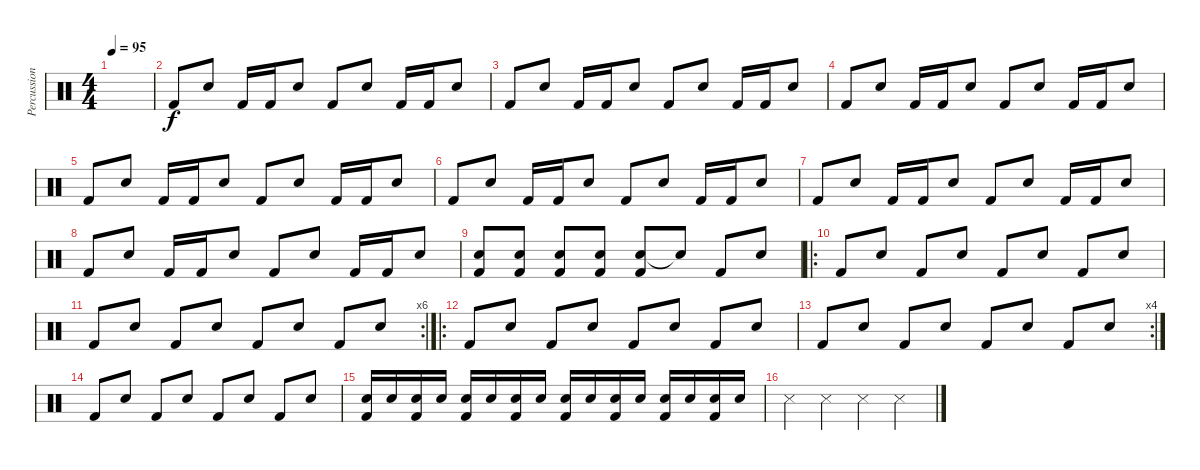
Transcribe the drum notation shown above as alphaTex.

\track ("Percussion" "Percussion") {instrument percussion}
\staff {score}
\articulation defaults
\ts (4 4)
\tempo 95
\clef neutral
\ks c
|
"Kick (hit) 2".8 "Snare (hit) 2".8 "Kick (hit) 2".16 "Kick (hit) 2".16 "Snare (hit) 2".8 "Kick (hit) 2".8 "Snare (hit) 2".8 "Kick (hit) 2".16 "Kick (hit) 2".16 "Snare (hit) 2".8 |
"Kick (hit) 2".8 "Snare (hit) 2".8 "Kick (hit) 2".16 "Kick (hit) 2".16 "Snare (hit) 2".8 "Kick (hit) 2".8 "Snare (hit) 2".8 "Kick (hit) 2".16 "Kick (hit) 2".16 "Snare (hit) 2".8 |
"Kick (hit) 2".8 "Snare (hit) 2".8 "Kick (hit) 2".16 "Kick (hit) 2".16 "Snare (hit) 2".8 "Kick (hit) 2".8 "Snare (hit) 2".8 "Kick (hit) 2".16 "Kick (hit) 2".16 "Snare (hit) 2".8 |
"Kick (hit) 2".8 "Snare (hit) 2".8 "Kick (hit) 2".16 "Kick (hit) 2".16 "Snare (hit) 2".8 "Kick (hit) 2".8 "Snare (hit) 2".8 "Kick (hit) 2".16 "Kick (hit) 2".16 "Snare (hit) 2".8 |
"Kick (hit) 2".8 "Snare (hit) 2".8 "Kick (hit) 2".16 "Kick (hit) 2".16 "Snare (hit) 2".8 "Kick (hit) 2".8 "Snare (hit) 2".8 "Kick (hit) 2".16 "Kick (hit) 2".16 "Snare (hit) 2".8 |
"Kick (hit) 2".8 "Snare (hit) 2".8 "Kick (hit) 2".16 "Kick (hit) 2".16 "Snare (hit) 2".8 "Kick (hit) 2".8 "Snare (hit) 2".8 "Kick (hit) 2".16 "Kick (hit) 2".16 "Snare (hit) 2".8 |
"Kick (hit) 2".8 "Snare (hit) 2".8 "Kick (hit) 2".16 "Kick (hit) 2".16 "Snare (hit) 2".8 "Kick (hit) 2".8 "Snare (hit) 2".8 "Kick (hit) 2".16 "Kick (hit) 2".16 "Snare (hit) 2".8 |
("Snare (hit) 2" "Kick (hit) 2").8 ("Snare (hit) 2" "Kick (hit) 2").8 ("Snare (hit) 2" "Kick (hit) 2").8 ("Snare (hit) 2" "Kick (hit) 2").8 ("Snare (hit) 2" "Kick (hit) 2").8 "Snare (hit)"{t}.8 "Kick (hit) 2".8 "Snare (hit) 2".8 |
\ro "Kick (hit) 2".8 "Snare (hit) 2".8 "Kick (hit) 2".8 "Snare (hit) 2".8 "Kick (hit) 2".8 "Snare (hit) 2".8 "Kick (hit) 2".8 "Snare (hit) 2".8
|
\rc 6 "Kick (hit) 2".8 "Snare (hit) 2".8 "Kick (hit) 2".8 "Snare (hit) 2".8 "Kick (hit) 2".8 "Snare (hit) 2".8 "Kick (hit) 2".8 "Snare (hit) 2".8
|
\ro "Kick (hit) 2".8 "Snare (hit) 2".8 "Kick (hit) 2".8 "Snare (hit) 2".8 "Kick (hit) 2".8 "Snare (hit) 2".8 "Kick (hit) 2".8 "Snare (hit) 2".8
|
\rc 4 "Kick (hit) 2".8 "Snare (hit) 2".8 "Kick (hit) 2".8 "Snare (hit) 2".8 "Kick (hit) 2".8 "Snare (hit) 2".8 "Kick (hit) 2".8 "Snare (hit) 2".8
|
"Kick (hit) 2".8 "Snare (hit) 2".8 "Kick (hit) 2".8 "Snare (hit) 2".8 "Kick (hit) 2".8 "Snare (hit) 2".8 "Kick (hit) 2".8 "Snare (hit) 2".8 |
("Snare (hit) 2" "Kick (hit) 2").16 "Snare (hit) 2".16 ("Snare (hit) 2" "Kick (hit) 2").16 "Snare (hit) 2".16 ("Snare (hit) 2" "Kick (hit) 2").16 "Snare (hit) 2".16 ("Snare (hit) 2" "Kick (hit) 2").16 "Snare (hit) 2".16 ("Snare (hit) 2" "Kick (hit) 2").16 "Snare (hit) 2".16 ("Snare (hit) 2" "Kick (hit) 2").16 "Snare (hit) 2".16 ("Snare (hit) 2" "Kick (hit) 2").16 "Snare (hit) 2".16 ("Snare (hit) 2" "Kick (hit) 2").16 "Snare (hit) 2".16 |
"Snare (side stick) 3".4 "Snare (side stick) 3".4 "Snare (side stick) 3".4 "Snare (side stick) 3".4
